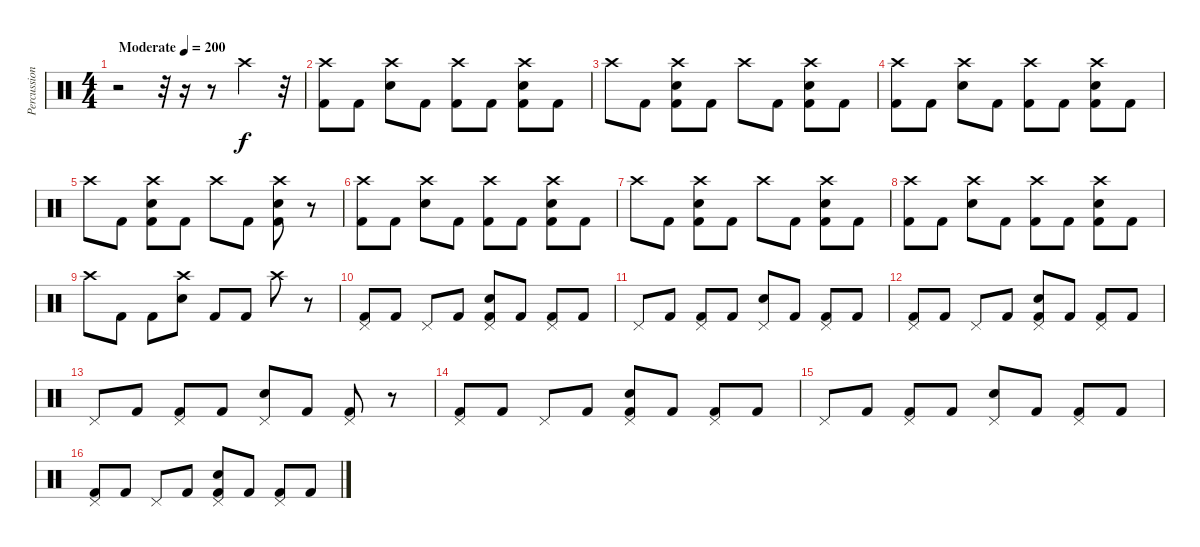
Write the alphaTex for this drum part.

\track ("Percussion" "Percussion") {instrument percussion}
\staff {score}
\articulation defaults
\ts (4 4)
\tempo (200 "Moderate")
\clef neutral
\ks c
r.2{dy f} r.32 r.16 r.8 "Crash high (hit)".4 r.32 |
("Crash high (hit)" "Kick (hit) 2").8 "Kick (hit) 2".8 ("Crash high (hit)" "Snare (hit) 2").8 "Kick (hit) 2".8 ("Crash high (hit)" "Kick (hit) 2").8 "Kick (hit) 2".8 ("Crash high (hit)" "Snare (hit) 2" "Kick (hit) 2").8 "Kick (hit) 2".8 |
"Crash high (hit)".8 "Kick (hit) 2".8 ("Crash high (hit)" "Snare (hit) 2" "Kick (hit) 2").8 "Kick (hit) 2".8 "Crash high (hit)".8 "Kick (hit) 2".8 ("Crash high (hit)" "Snare (hit) 2" "Kick (hit) 2").8 "Kick (hit) 2".8 |
("Crash high (hit)" "Kick (hit) 2").8 "Kick (hit) 2".8 ("Crash high (hit)" "Snare (hit) 2").8 "Kick (hit) 2".8 ("Crash high (hit)" "Kick (hit) 2").8 "Kick (hit) 2".8 ("Crash high (hit)" "Snare (hit) 2" "Kick (hit) 2").8 "Kick (hit) 2".8 |
"Crash high (hit)".8 "Kick (hit) 2".8 ("Crash high (hit)" "Snare (hit) 2" "Kick (hit) 2").8 "Kick (hit) 2".8 "Crash high (hit)".8 "Kick (hit) 2".8 ("Crash high (hit)" "Snare (hit) 2" "Kick (hit) 2").8 r.8 |
("Crash high (hit)" "Kick (hit) 2").8 "Kick (hit) 2".8 ("Crash high (hit)" "Snare (hit) 2").8 "Kick (hit) 2".8 ("Crash high (hit)" "Kick (hit) 2").8 "Kick (hit) 2".8 ("Crash high (hit)" "Snare (hit) 2" "Kick (hit) 2").8 "Kick (hit) 2".8 |
"Crash high (hit)".8 "Kick (hit) 2".8 ("Crash high (hit)" "Snare (hit) 2" "Kick (hit) 2").8 "Kick (hit) 2".8 "Crash high (hit)".8 "Kick (hit) 2".8 ("Crash high (hit)" "Snare (hit) 2" "Kick (hit) 2").8 "Kick (hit) 2".8 |
("Crash high (hit)" "Kick (hit) 2").8 "Kick (hit) 2".8 ("Crash high (hit)" "Snare (hit) 2").8 "Kick (hit) 2".8 ("Crash high (hit)" "Kick (hit) 2").8 "Kick (hit) 2".8 ("Crash high (hit)" "Snare (hit) 2" "Kick (hit) 2").8 "Kick (hit) 2".8 |
"Crash high (hit)".8 "Kick (hit) 2".8 "Kick (hit) 2".8 ("Crash high (hit)" "Snare (hit) 2").8 "Kick (hit) 2".8 "Kick (hit) 2".8 "Crash high (hit)".8 r.8 |
("Pedal Hi-Hat (hit)" "Kick (hit) 2").8 "Kick (hit) 2".8 "Pedal Hi-Hat (hit)".8 "Kick (hit) 2".8 ("Pedal Hi-Hat (hit)" "Snare (hit) 2" "Kick (hit) 2").8 "Kick (hit) 2".8 ("Pedal Hi-Hat (hit)" "Kick (hit) 2").8 "Kick (hit) 2".8 |
"Pedal Hi-Hat (hit)".8 "Kick (hit) 2".8 ("Pedal Hi-Hat (hit)" "Kick (hit) 2").8 "Kick (hit) 2".8 ("Pedal Hi-Hat (hit)" "Snare (hit) 2").8 "Kick (hit) 2".8 ("Pedal Hi-Hat (hit)" "Kick (hit) 2").8 "Kick (hit) 2".8 |
("Pedal Hi-Hat (hit)" "Kick (hit) 2").8 "Kick (hit) 2".8 "Pedal Hi-Hat (hit)".8 "Kick (hit) 2".8 ("Pedal Hi-Hat (hit)" "Snare (hit) 2" "Kick (hit) 2").8 "Kick (hit) 2".8 ("Pedal Hi-Hat (hit)" "Kick (hit) 2").8 "Kick (hit) 2".8 |
"Pedal Hi-Hat (hit)".8 "Kick (hit) 2".8 ("Pedal Hi-Hat (hit)" "Kick (hit) 2").8 "Kick (hit) 2".8 ("Pedal Hi-Hat (hit)" "Snare (hit) 2").8 "Kick (hit) 2".8 ("Pedal Hi-Hat (hit)" "Kick (hit) 2").8 r.8 |
("Pedal Hi-Hat (hit)" "Kick (hit) 2").8 "Kick (hit) 2".8 "Pedal Hi-Hat (hit)".8 "Kick (hit) 2".8 ("Pedal Hi-Hat (hit)" "Snare (hit) 2" "Kick (hit) 2").8 "Kick (hit) 2".8 ("Pedal Hi-Hat (hit)" "Kick (hit) 2").8 "Kick (hit) 2".8 |
"Pedal Hi-Hat (hit)".8 "Kick (hit) 2".8 ("Pedal Hi-Hat (hit)" "Kick (hit) 2").8 "Kick (hit) 2".8 ("Pedal Hi-Hat (hit)" "Snare (hit) 2").8 "Kick (hit) 2".8 ("Pedal Hi-Hat (hit)" "Kick (hit) 2").8 "Kick (hit) 2".8 |
("Pedal Hi-Hat (hit)" "Kick (hit) 2").8 "Kick (hit) 2".8 "Pedal Hi-Hat (hit)".8 "Kick (hit) 2".8 ("Pedal Hi-Hat (hit)" "Snare (hit) 2" "Kick (hit) 2").8 "Kick (hit) 2".8 ("Pedal Hi-Hat (hit)" "Kick (hit) 2").8 "Kick (hit) 2".8
